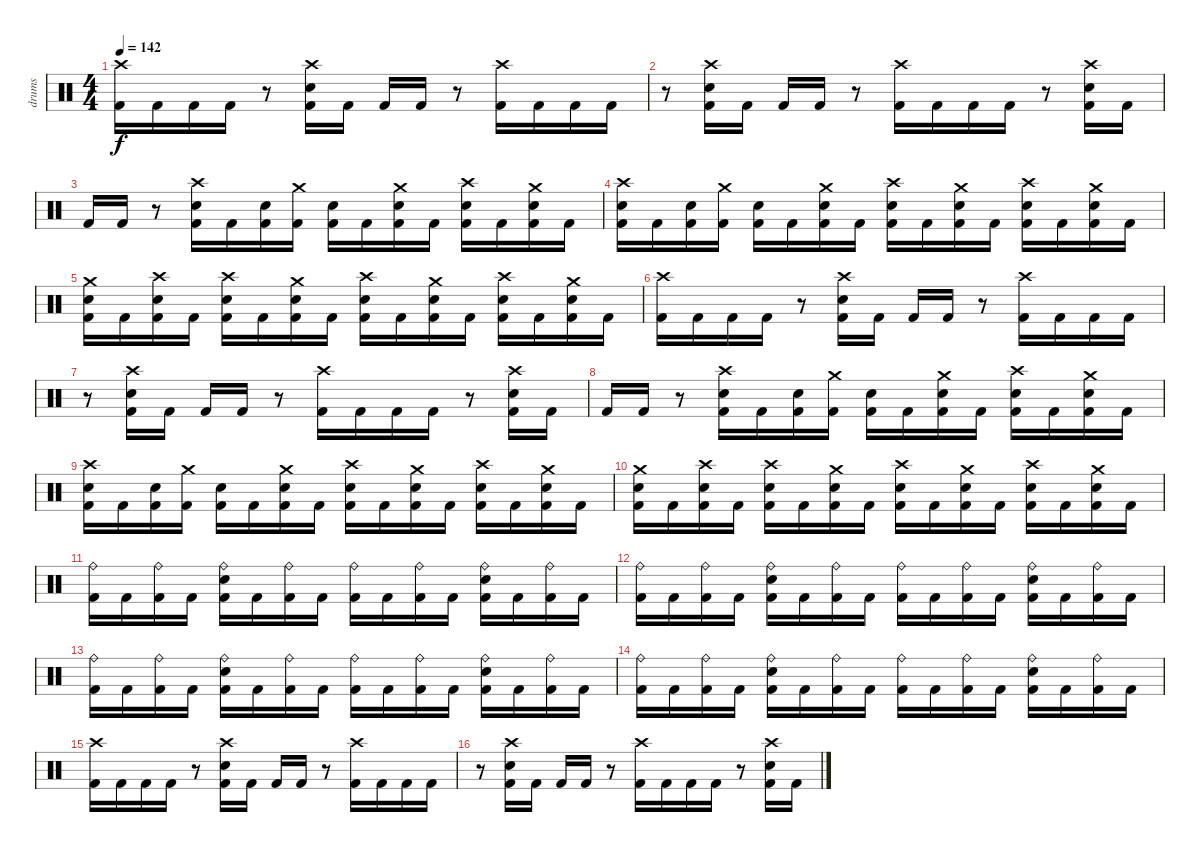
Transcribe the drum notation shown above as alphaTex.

\track ("drums" "drums") {instrument percussion}
\staff {score}
\articulation defaults
\ts (4 4)
\section ("" "")
\tempo 142
\clef neutral
\ks c
("Crash high (hit)" "Kick (hit) 2").16{dy f} "Kick (hit) 2".16 "Kick (hit) 2".16 "Kick (hit) 2".16 r.8 ("Crash high (hit)" "Snare (hit) 2" "Kick (hit) 2").16 "Kick (hit) 2".16 "Kick (hit) 2".16 "Kick (hit) 2".16 r.8 ("Crash high (hit)" "Kick (hit) 2").16 "Kick (hit) 2".16 "Kick (hit) 2".16 "Kick (hit) 2".16 |
r.8 ("Crash high (hit)" "Snare (hit) 2" "Kick (hit) 2").16 "Kick (hit) 2".16 "Kick (hit) 2".16 "Kick (hit) 2".16 r.8 ("Crash high (hit)" "Kick (hit) 2").16 "Kick (hit) 2".16 "Kick (hit) 2".16 "Kick (hit) 2".16 r.8 ("Crash high (hit)" "Snare (hit) 2" "Kick (hit) 2").16 "Kick (hit) 2".16 |
"Kick (hit) 2".16 "Kick (hit) 2".16 r.8 ("Crash high (hit)" "Snare (hit) 2" "Kick (hit) 2").16 "Kick (hit) 2".16 ("Snare (hit) 2" "Kick (hit) 2").16 ("Crash medium (hit)" "Kick (hit) 2").16 ("Snare (hit) 2" "Kick (hit) 2").16 "Kick (hit) 2".16 ("Crash medium (hit)" "Snare (hit) 2" "Kick (hit) 2").16 "Kick (hit) 2".16 ("Crash high (hit)" "Snare (hit) 2" "Kick (hit) 2").16 "Kick (hit) 2".16 ("Crash medium (hit)" "Snare (hit) 2" "Kick (hit) 2").16 "Kick (hit) 2".16 |
("Crash high (hit)" "Snare (hit) 2" "Kick (hit) 2").16 "Kick (hit) 2".16 ("Snare (hit) 2" "Kick (hit) 2").16 ("Crash medium (hit)" "Kick (hit) 2").16 ("Snare (hit) 2" "Kick (hit) 2").16 "Kick (hit) 2".16 ("Crash medium (hit)" "Snare (hit) 2" "Kick (hit) 2").16 "Kick (hit) 2".16 ("Crash high (hit)" "Snare (hit) 2" "Kick (hit) 2").16 "Kick (hit) 2".16 ("Crash medium (hit)" "Snare (hit) 2" "Kick (hit) 2").16 "Kick (hit) 2".16 ("Crash high (hit)" "Snare (hit) 2" "Kick (hit) 2").16 "Kick (hit) 2".16 ("Crash medium (hit)" "Snare (hit) 2" "Kick (hit) 2").16 "Kick (hit) 2".16 |
("Crash medium (hit)" "Snare (hit) 2" "Kick (hit) 2").16 "Kick (hit) 2".16 ("Crash high (hit)" "Snare (hit) 2" "Kick (hit) 2").16 "Kick (hit) 2".16 ("Crash high (hit)" "Snare (hit) 2" "Kick (hit) 2").16 "Kick (hit) 2".16 ("Crash medium (hit)" "Snare (hit) 2" "Kick (hit) 2").16 "Kick (hit) 2".16 ("Crash high (hit)" "Snare (hit) 2" "Kick (hit) 2").16 "Kick (hit) 2".16 ("Crash medium (hit)" "Snare (hit) 2" "Kick (hit) 2").16 "Kick (hit) 2".16 ("Crash high (hit)" "Snare (hit) 2" "Kick (hit) 2").16 "Kick (hit) 2".16 ("Crash medium (hit)" "Snare (hit) 2" "Kick (hit) 2").16 "Kick (hit) 2".16 |
("Crash high (hit)" "Kick (hit) 2").16 "Kick (hit) 2".16 "Kick (hit) 2".16 "Kick (hit) 2".16 r.8 ("Crash high (hit)" "Snare (hit) 2" "Kick (hit) 2").16 "Kick (hit) 2".16 "Kick (hit) 2".16 "Kick (hit) 2".16 r.8 ("Crash high (hit)" "Kick (hit) 2").16 "Kick (hit) 2".16 "Kick (hit) 2".16 "Kick (hit) 2".16 |
r.8 ("Crash high (hit)" "Snare (hit) 2" "Kick (hit) 2").16 "Kick (hit) 2".16 "Kick (hit) 2".16 "Kick (hit) 2".16 r.8 ("Crash high (hit)" "Kick (hit) 2").16 "Kick (hit) 2".16 "Kick (hit) 2".16 "Kick (hit) 2".16 r.8 ("Crash high (hit)" "Snare (hit) 2" "Kick (hit) 2").16 "Kick (hit) 2".16 |
"Kick (hit) 2".16 "Kick (hit) 2".16 r.8 ("Crash high (hit)" "Snare (hit) 2" "Kick (hit) 2").16 "Kick (hit) 2".16 ("Snare (hit) 2" "Kick (hit) 2").16 ("Crash medium (hit)" "Kick (hit) 2").16 ("Snare (hit) 2" "Kick (hit) 2").16 "Kick (hit) 2".16 ("Crash medium (hit)" "Snare (hit) 2" "Kick (hit) 2").16 "Kick (hit) 2".16 ("Crash high (hit)" "Snare (hit) 2" "Kick (hit) 2").16 "Kick (hit) 2".16 ("Crash medium (hit)" "Snare (hit) 2" "Kick (hit) 2").16 "Kick (hit) 2".16 |
("Crash high (hit)" "Snare (hit) 2" "Kick (hit) 2").16 "Kick (hit) 2".16 ("Snare (hit) 2" "Kick (hit) 2").16 ("Crash medium (hit)" "Kick (hit) 2").16 ("Snare (hit) 2" "Kick (hit) 2").16 "Kick (hit) 2".16 ("Crash medium (hit)" "Snare (hit) 2" "Kick (hit) 2").16 "Kick (hit) 2".16 ("Crash high (hit)" "Snare (hit) 2" "Kick (hit) 2").16 "Kick (hit) 2".16 ("Crash medium (hit)" "Snare (hit) 2" "Kick (hit) 2").16 "Kick (hit) 2".16 ("Crash high (hit)" "Snare (hit) 2" "Kick (hit) 2").16 "Kick (hit) 2".16 ("Crash medium (hit)" "Snare (hit) 2" "Kick (hit) 2").16 "Kick (hit) 2".16 |
("Crash medium (hit)" "Snare (hit) 2" "Kick (hit) 2").16 "Kick (hit) 2".16 ("Crash high (hit)" "Snare (hit) 2" "Kick (hit) 2").16 "Kick (hit) 2".16 ("Crash high (hit)" "Snare (hit) 2" "Kick (hit) 2").16 "Kick (hit) 2".16 ("Crash medium (hit)" "Snare (hit) 2" "Kick (hit) 2").16 "Kick (hit) 2".16 ("Crash high (hit)" "Snare (hit) 2" "Kick (hit) 2").16 "Kick (hit) 2".16 ("Crash medium (hit)" "Snare (hit) 2" "Kick (hit) 2").16 "Kick (hit) 2".16 ("Crash high (hit)" "Snare (hit) 2" "Kick (hit) 2").16 "Kick (hit) 2".16 ("Crash medium (hit)" "Snare (hit) 2" "Kick (hit) 2").16 "Kick (hit) 2".16 |
("Ride (bell)" "Kick (hit) 2").16 "Kick (hit) 2".16 ("Ride (bell)" "Kick (hit) 2").16 "Kick (hit) 2".16 ("Ride (bell)" "Snare (hit) 2" "Kick (hit) 2").16 "Kick (hit) 2".16 ("Ride (bell)" "Kick (hit) 2").16 "Kick (hit) 2".16 ("Ride (bell)" "Kick (hit) 2").16 "Kick (hit) 2".16 ("Ride (bell)" "Kick (hit) 2").16 "Kick (hit) 2".16 ("Ride (bell)" "Snare (hit) 2" "Kick (hit) 2").16 "Kick (hit) 2".16 ("Ride (bell)" "Kick (hit) 2").16 "Kick (hit) 2".16 |
("Ride (bell)" "Kick (hit) 2").16 "Kick (hit) 2".16 ("Ride (bell)" "Kick (hit) 2").16 "Kick (hit) 2".16 ("Ride (bell)" "Snare (hit) 2" "Kick (hit) 2").16 "Kick (hit) 2".16 ("Ride (bell)" "Kick (hit) 2").16 "Kick (hit) 2".16 ("Ride (bell)" "Kick (hit) 2").16 "Kick (hit) 2".16 ("Ride (bell)" "Kick (hit) 2").16 "Kick (hit) 2".16 ("Ride (bell)" "Snare (hit) 2" "Kick (hit) 2").16 "Kick (hit) 2".16 ("Ride (bell)" "Kick (hit) 2").16 "Kick (hit) 2".16 |
("Ride (bell)" "Kick (hit) 2").16 "Kick (hit) 2".16 ("Ride (bell)" "Kick (hit) 2").16 "Kick (hit) 2".16 ("Ride (bell)" "Snare (hit) 2" "Kick (hit) 2").16 "Kick (hit) 2".16 ("Ride (bell)" "Kick (hit) 2").16 "Kick (hit) 2".16 ("Ride (bell)" "Kick (hit) 2").16 "Kick (hit) 2".16 ("Ride (bell)" "Kick (hit) 2").16 "Kick (hit) 2".16 ("Ride (bell)" "Snare (hit) 2" "Kick (hit) 2").16 "Kick (hit) 2".16 ("Ride (bell)" "Kick (hit) 2").16 "Kick (hit) 2".16 |
("Ride (bell)" "Kick (hit) 2").16 "Kick (hit) 2".16 ("Ride (bell)" "Kick (hit) 2").16 "Kick (hit) 2".16 ("Ride (bell)" "Snare (hit) 2" "Kick (hit) 2").16 "Kick (hit) 2".16 ("Ride (bell)" "Kick (hit) 2").16 "Kick (hit) 2".16 ("Ride (bell)" "Kick (hit) 2").16 "Kick (hit) 2".16 ("Ride (bell)" "Kick (hit) 2").16 "Kick (hit) 2".16 ("Ride (bell)" "Snare (hit) 2" "Kick (hit) 2").16 "Kick (hit) 2".16 ("Ride (bell)" "Kick (hit) 2").16 "Kick (hit) 2".16 |
("Crash high (hit)" "Kick (hit) 2").16 "Kick (hit) 2".16 "Kick (hit) 2".16 "Kick (hit) 2".16 r.8 ("Crash high (hit)" "Snare (hit) 2" "Kick (hit) 2").16 "Kick (hit) 2".16 "Kick (hit) 2".16 "Kick (hit) 2".16 r.8 ("Crash high (hit)" "Kick (hit) 2").16 "Kick (hit) 2".16 "Kick (hit) 2".16 "Kick (hit) 2".16 |
r.8 ("Crash high (hit)" "Snare (hit) 2" "Kick (hit) 2").16 "Kick (hit) 2".16 "Kick (hit) 2".16 "Kick (hit) 2".16 r.8 ("Crash high (hit)" "Kick (hit) 2").16 "Kick (hit) 2".16 "Kick (hit) 2".16 "Kick (hit) 2".16 r.8 ("Crash high (hit)" "Snare (hit) 2" "Kick (hit) 2").16 "Kick (hit) 2".16
